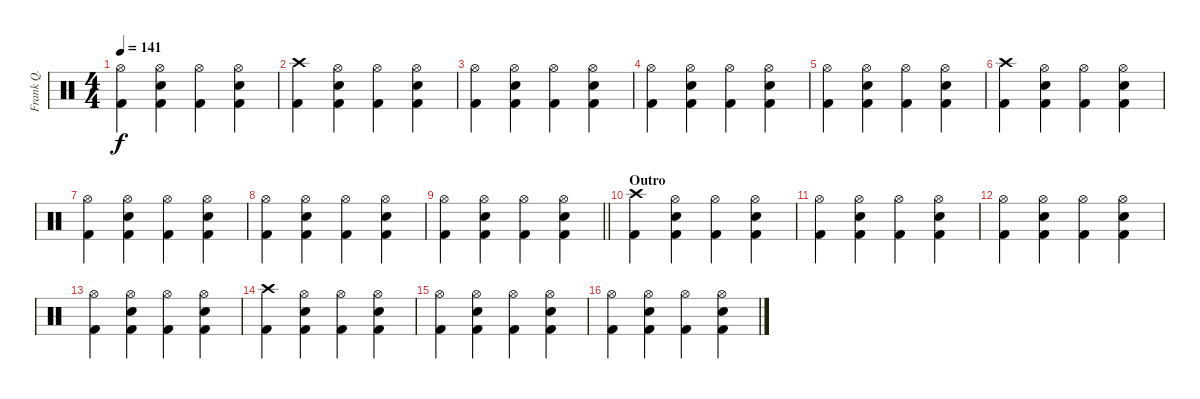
\track ("Frank Q." "Frank Q.") {instrument percussion}
\staff {score}
\articulation defaults
\ts (4 4)
\tempo 141
\clef neutral
\ks c
("Hi-Hat (open)" "Kick (hit) 2").4{dy f} ("Hi-Hat (open)" "Electric Snare (hit)" "Kick (hit) 2").4 ("Hi-Hat (open)" "Kick (hit) 2").4 ("Hi-Hat (open)" "Electric Snare (hit)" "Kick (hit) 2").4 |
("Crash high (hit)" "Kick (hit) 2").4 ("Hi-Hat (open)" "Electric Snare (hit)" "Kick (hit) 2").4 ("Hi-Hat (open)" "Kick (hit) 2").4 ("Hi-Hat (open)" "Electric Snare (hit)" "Kick (hit) 2").4 |
("Hi-Hat (open)" "Kick (hit) 2").4 ("Hi-Hat (open)" "Electric Snare (hit)" "Kick (hit) 2").4 ("Hi-Hat (open)" "Kick (hit) 2").4 ("Hi-Hat (open)" "Electric Snare (hit)" "Kick (hit) 2").4 |
("Hi-Hat (open)" "Kick (hit) 2").4 ("Hi-Hat (open)" "Electric Snare (hit)" "Kick (hit) 2").4 ("Hi-Hat (open)" "Kick (hit) 2").4 ("Hi-Hat (open)" "Electric Snare (hit)" "Kick (hit) 2").4 |
("Hi-Hat (open)" "Kick (hit) 2").4 ("Hi-Hat (open)" "Electric Snare (hit)" "Kick (hit) 2").4 ("Hi-Hat (open)" "Kick (hit) 2").4 ("Hi-Hat (open)" "Electric Snare (hit)" "Kick (hit) 2").4 |
("Crash high (hit)" "Kick (hit) 2").4 ("Hi-Hat (open)" "Electric Snare (hit)" "Kick (hit) 2").4 ("Hi-Hat (open)" "Kick (hit) 2").4 ("Hi-Hat (open)" "Electric Snare (hit)" "Kick (hit) 2").4 |
("Hi-Hat (open)" "Kick (hit) 2").4 ("Hi-Hat (open)" "Electric Snare (hit)" "Kick (hit) 2").4 ("Hi-Hat (open)" "Kick (hit) 2").4 ("Hi-Hat (open)" "Electric Snare (hit)" "Kick (hit) 2").4 |
("Hi-Hat (open)" "Kick (hit) 2").4 ("Hi-Hat (open)" "Electric Snare (hit)" "Kick (hit) 2").4 ("Hi-Hat (open)" "Kick (hit) 2").4 ("Hi-Hat (open)" "Electric Snare (hit)" "Kick (hit) 2").4 |
\barLineRight lightlight
("Hi-Hat (open)" "Kick (hit) 2").4 ("Hi-Hat (open)" "Electric Snare (hit)" "Kick (hit) 2").4 ("Hi-Hat (open)" "Kick (hit) 2").4 ("Hi-Hat (open)" "Electric Snare (hit)" "Kick (hit) 2").4 |
\section ("" "Outro")
("Crash high (hit)" "Kick (hit) 2").4 ("Hi-Hat (open)" "Electric Snare (hit)" "Kick (hit) 2").4 ("Hi-Hat (open)" "Kick (hit) 2").4 ("Hi-Hat (open)" "Electric Snare (hit)" "Kick (hit) 2").4 |
("Hi-Hat (open)" "Kick (hit) 2").4 ("Hi-Hat (open)" "Electric Snare (hit)" "Kick (hit) 2").4 ("Hi-Hat (open)" "Kick (hit) 2").4 ("Hi-Hat (open)" "Electric Snare (hit)" "Kick (hit) 2").4 |
("Hi-Hat (open)" "Kick (hit) 2").4 ("Hi-Hat (open)" "Electric Snare (hit)" "Kick (hit) 2").4 ("Hi-Hat (open)" "Kick (hit) 2").4 ("Hi-Hat (open)" "Electric Snare (hit)" "Kick (hit) 2").4 |
("Hi-Hat (open)" "Kick (hit) 2").4 ("Hi-Hat (open)" "Electric Snare (hit)" "Kick (hit) 2").4 ("Hi-Hat (open)" "Kick (hit) 2").4 ("Hi-Hat (open)" "Electric Snare (hit)" "Kick (hit) 2").4 |
("Crash high (hit)" "Kick (hit) 2").4 ("Hi-Hat (open)" "Electric Snare (hit)" "Kick (hit) 2").4 ("Hi-Hat (open)" "Kick (hit) 2").4 ("Hi-Hat (open)" "Electric Snare (hit)" "Kick (hit) 2").4 |
("Hi-Hat (open)" "Kick (hit) 2").4 ("Hi-Hat (open)" "Electric Snare (hit)" "Kick (hit) 2").4 ("Hi-Hat (open)" "Kick (hit) 2").4 ("Hi-Hat (open)" "Electric Snare (hit)" "Kick (hit) 2").4 |
("Hi-Hat (open)" "Kick (hit) 2").4 ("Hi-Hat (open)" "Electric Snare (hit)" "Kick (hit) 2").4 ("Hi-Hat (open)" "Kick (hit) 2").4 ("Hi-Hat (open)" "Electric Snare (hit)" "Kick (hit) 2").4
